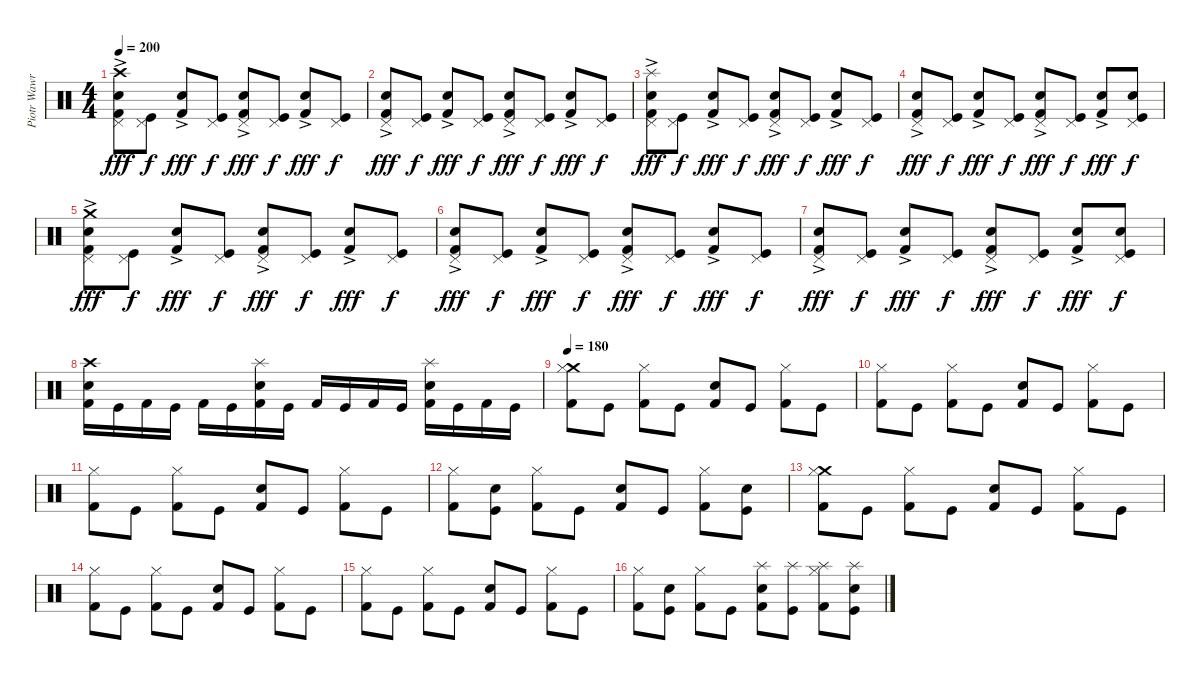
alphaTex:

\track ("Piotr Wawrzeniuk" "Piotr Wawr") {instrument percussion}
\staff {score}
\articulation defaults
\ts (4 4)
\tempo 200
\clef neutral
\ks c
("Crash high (hit)" "Snare (hit) 2"{ac} "Pedal Hi-Hat (hit)" "Kick (hit) 2").8{dy fff} ("Pedal Hi-Hat (hit)" "Kick (hit)").8{dy f} ("Snare (hit) 2"{ac} "Kick (hit) 2").8{dy fff} ("Pedal Hi-Hat (hit)" "Kick (hit)").8{dy f} ("Snare (hit) 2"{ac} "Pedal Hi-Hat (hit)" "Kick (hit) 2").8{dy fff} ("Pedal Hi-Hat (hit)" "Kick (hit)").8{dy f} ("Snare (hit) 2"{ac} "Kick (hit) 2").8{dy fff} ("Pedal Hi-Hat (hit)" "Kick (hit)").8{dy f} |
("Snare (hit) 2"{ac} "Pedal Hi-Hat (hit)" "Kick (hit) 2").8{dy fff} ("Pedal Hi-Hat (hit)" "Kick (hit)").8{dy f} ("Snare (hit) 2"{ac} "Kick (hit) 2").8{dy fff} ("Pedal Hi-Hat (hit)" "Kick (hit)").8{dy f} ("Snare (hit) 2"{ac} "Pedal Hi-Hat (hit)" "Kick (hit) 2").8{dy fff} ("Pedal Hi-Hat (hit)" "Kick (hit)").8{dy f} ("Snare (hit) 2"{ac} "Kick (hit) 2").8{dy fff} ("Pedal Hi-Hat (hit)" "Kick (hit)").8{dy f} |
("Snare (hit) 2"{ac} "Splash (hit)" "Pedal Hi-Hat (hit)" "Kick (hit) 2").8{dy fff} ("Pedal Hi-Hat (hit)" "Kick (hit)").8{dy f} ("Snare (hit) 2"{ac} "Kick (hit) 2").8{dy fff} ("Pedal Hi-Hat (hit)" "Kick (hit)").8{dy f} ("Snare (hit) 2"{ac} "Pedal Hi-Hat (hit)" "Kick (hit) 2").8{dy fff} ("Pedal Hi-Hat (hit)" "Kick (hit)").8{dy f} ("Snare (hit) 2"{ac} "Kick (hit) 2").8{dy fff} ("Pedal Hi-Hat (hit)" "Kick (hit)").8{dy f} |
("Snare (hit) 2"{ac} "Pedal Hi-Hat (hit)" "Kick (hit) 2").8{dy fff} ("Pedal Hi-Hat (hit)" "Kick (hit)").8{dy f} ("Snare (hit) 2"{ac} "Kick (hit) 2").8{dy fff} ("Pedal Hi-Hat (hit)" "Kick (hit)").8{dy f} ("Snare (hit) 2"{ac} "Pedal Hi-Hat (hit)" "Kick (hit) 2").8{dy fff} ("Pedal Hi-Hat (hit)" "Kick (hit)").8{dy f} ("Snare (hit) 2"{ac} "Kick (hit) 2").8{dy fff} ("Snare (hit) 2" "Pedal Hi-Hat (hit)" "Kick (hit)").8{dy f} |
("Crash medium (hit)" "Snare (hit) 2"{ac} "Pedal Hi-Hat (hit)" "Kick (hit) 2").8{dy fff} ("Pedal Hi-Hat (hit)" "Kick (hit)").8{dy f} ("Snare (hit) 2"{ac} "Kick (hit) 2").8{dy fff} ("Pedal Hi-Hat (hit)" "Kick (hit)").8{dy f} ("Snare (hit) 2"{ac} "Pedal Hi-Hat (hit)" "Kick (hit) 2").8{dy fff} ("Pedal Hi-Hat (hit)" "Kick (hit)").8{dy f} ("Snare (hit) 2"{ac} "Kick (hit) 2").8{dy fff} ("Pedal Hi-Hat (hit)" "Kick (hit)").8{dy f} |
("Snare (hit) 2"{ac} "Pedal Hi-Hat (hit)" "Kick (hit) 2").8{dy fff} ("Pedal Hi-Hat (hit)" "Kick (hit)").8{dy f} ("Snare (hit) 2"{ac} "Kick (hit) 2").8{dy fff} ("Pedal Hi-Hat (hit)" "Kick (hit)").8{dy f} ("Snare (hit) 2"{ac} "Pedal Hi-Hat (hit)" "Kick (hit) 2").8{dy fff} ("Pedal Hi-Hat (hit)" "Kick (hit)").8{dy f} ("Snare (hit) 2"{ac} "Kick (hit) 2").8{dy fff} ("Pedal Hi-Hat (hit)" "Kick (hit)").8{dy f} |
("Snare (hit) 2"{ac} "Pedal Hi-Hat (hit)" "Kick (hit) 2").8{dy fff} ("Pedal Hi-Hat (hit)" "Kick (hit)").8{dy f} ("Snare (hit) 2"{ac} "Kick (hit) 2").8{dy fff} ("Pedal Hi-Hat (hit)" "Kick (hit)").8{dy f} ("Snare (hit) 2"{ac} "Pedal Hi-Hat (hit)" "Kick (hit) 2").8{dy fff} ("Pedal Hi-Hat (hit)" "Kick (hit)").8{dy f} ("Snare (hit) 2"{ac} "Kick (hit) 2").8{dy fff} ("Snare (hit) 2" "Pedal Hi-Hat (hit)" "Kick (hit)").8{dy f} |
("Crash high (hit)" "Snare (hit) 2" "Kick (hit) 2").16 "Kick (hit)".16 "Kick (hit) 2".16 "Kick (hit)".16 "Kick (hit) 2".16 "Kick (hit)".16 ("Splash (hit)" "Snare (hit) 2" "Kick (hit) 2").16 "Kick (hit)".16 "Kick (hit) 2".16 "Kick (hit)".16 "Kick (hit) 2".16 "Kick (hit)".16 ("Splash (hit)" "Snare (hit) 2" "Kick (hit) 2").16 "Kick (hit)".16 "Kick (hit) 2".16 "Kick (hit)".16 |
\tempo 180
("Crash medium (hit)" "Hi-Hat (closed)" "Kick (hit) 2").8 "Kick (hit)".8 ("Hi-Hat (closed)" "Kick (hit) 2").8 "Kick (hit)".8 ("Snare (hit) 2" "Kick (hit) 2").8 "Kick (hit)".8 ("Hi-Hat (closed)" "Kick (hit) 2").8 "Kick (hit)".8 |
("Hi-Hat (closed)" "Kick (hit) 2").8 "Kick (hit)".8 ("Hi-Hat (closed)" "Kick (hit) 2").8 "Kick (hit)".8 ("Snare (hit) 2" "Kick (hit) 2").8 "Kick (hit)".8 ("Hi-Hat (closed)" "Kick (hit) 2").8 "Kick (hit)".8 |
("Hi-Hat (closed)" "Kick (hit) 2").8 "Kick (hit)".8 ("Hi-Hat (closed)" "Kick (hit) 2").8 "Kick (hit)".8 ("Snare (hit) 2" "Kick (hit) 2").8 "Kick (hit)".8 ("Hi-Hat (closed)" "Kick (hit) 2").8 "Kick (hit)".8 |
("Hi-Hat (closed)" "Kick (hit) 2").8 ("Snare (hit) 2" "Kick (hit)").8 ("Hi-Hat (closed)" "Kick (hit) 2").8 "Kick (hit)".8 ("Snare (hit) 2" "Kick (hit) 2").8 "Kick (hit)".8 ("Hi-Hat (closed)" "Kick (hit) 2").8 ("Snare (hit) 2" "Kick (hit)").8 |
("Crash medium (hit)" "Hi-Hat (closed)" "Kick (hit) 2").8 "Kick (hit)".8 ("Hi-Hat (closed)" "Kick (hit) 2").8 "Kick (hit)".8 ("Snare (hit) 2" "Kick (hit) 2").8 "Kick (hit)".8 ("Hi-Hat (closed)" "Kick (hit) 2").8 "Kick (hit)".8 |
("Hi-Hat (closed)" "Kick (hit) 2").8 "Kick (hit)".8 ("Hi-Hat (closed)" "Kick (hit) 2").8 "Kick (hit)".8 ("Snare (hit) 2" "Kick (hit) 2").8 "Kick (hit)".8 ("Hi-Hat (closed)" "Kick (hit) 2").8 "Kick (hit)".8 |
("Hi-Hat (closed)" "Kick (hit) 2").8 "Kick (hit)".8 ("Hi-Hat (closed)" "Kick (hit) 2").8 "Kick (hit)".8 ("Snare (hit) 2" "Kick (hit) 2").8 "Kick (hit)".8 ("Hi-Hat (closed)" "Kick (hit) 2").8 "Kick (hit)".8 |
("Hi-Hat (closed)" "Kick (hit) 2").8 ("Snare (hit) 2" "Kick (hit)").8 ("Hi-Hat (closed)" "Kick (hit) 2").8 "Kick (hit)".8 ("Splash (hit)" "Snare (hit) 2" "Kick (hit) 2").8 ("Splash (hit)" "Kick (hit)").8 ("Splash (hit)" "Hi-Hat (closed)" "Kick (hit) 2").8 ("Splash (hit)" "Snare (hit) 2" "Kick (hit)").8
